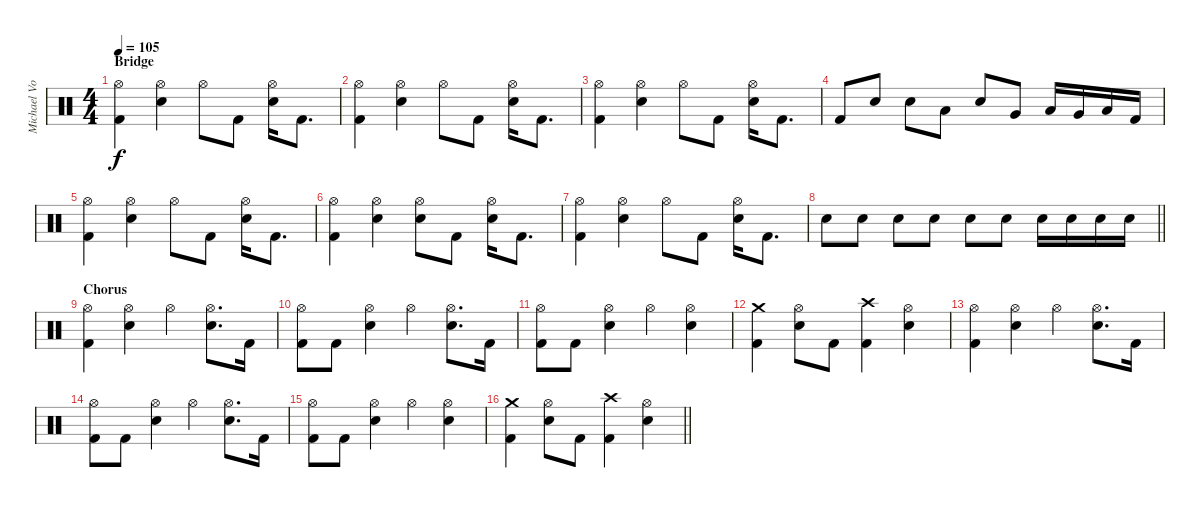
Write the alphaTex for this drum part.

\track ("Michael Von Knorring" "Michael Vo") {instrument percussion}
\staff {score}
\articulation defaults
\ts (4 4)
\section ("" "Bridge")
\tempo 105
\clef neutral
\ks c
("Hi-Hat (open)" "Kick (hit) 2").4{dy f} ("Hi-Hat (open)" "Snare (hit) 2").4 "Hi-Hat (open)".8 "Kick (hit) 2".8 ("Hi-Hat (open)" "Snare (hit) 2").16 "Kick (hit) 2".8{d} |
("Hi-Hat (open)" "Kick (hit) 2").4 ("Hi-Hat (open)" "Snare (hit) 2").4 "Hi-Hat (open)".8 "Kick (hit) 2".8 ("Hi-Hat (open)" "Snare (hit) 2").16 "Kick (hit) 2".8{d} |
("Hi-Hat (open)" "Kick (hit) 2").4 ("Hi-Hat (open)" "Snare (hit) 2").4 "Hi-Hat (open)".8 "Kick (hit) 2".8 ("Hi-Hat (open)" "Snare (hit) 2").16 "Kick (hit) 2".8{d} |
"Kick (hit) 2".8 "Snare (hit) 2".8 "Snare (hit) 2".8 "Low Tom (hit)".8 "Snare (hit) 2".8 "Very Low Tom (hit)".8 "Low Tom (hit)".16 "Very Low Tom (hit)".16 "Low Floor Tom (hit)".16 "Kick (hit) 2".16 |
("Hi-Hat (open)" "Kick (hit) 2").4 ("Hi-Hat (open)" "Snare (hit) 2").4 "Hi-Hat (open)".8 "Kick (hit) 2".8 ("Hi-Hat (open)" "Snare (hit) 2").16 "Kick (hit) 2".8{d} |
("Hi-Hat (open)" "Kick (hit) 2").4 ("Hi-Hat (open)" "Snare (hit) 2").4 ("Hi-Hat (open)" "Snare (hit) 2").8 "Kick (hit) 2".8 ("Hi-Hat (open)" "Snare (hit) 2").16 "Kick (hit) 2".8{d} |
("Hi-Hat (open)" "Kick (hit) 2").4 ("Hi-Hat (open)" "Snare (hit) 2").4 "Hi-Hat (open)".8 "Kick (hit) 2".8 ("Hi-Hat (open)" "Snare (hit) 2").16 "Kick (hit) 2".8{d} |
\barLineRight lightlight "Snare (hit) 2".8 "Snare (hit) 2".8 "Snare (hit) 2".8 "Snare (hit) 2".8 "Snare (hit) 2".8 "Snare (hit) 2".8 "Snare (hit) 2".16 "Snare (hit) 2".16 "Snare (hit) 2".16 "Snare (hit) 2".16
|
\section ("" "Chorus")
("Hi-Hat (open)" "Kick (hit) 2").4 ("Hi-Hat (open)" "Snare (hit) 2").4 "Hi-Hat (open)".4 ("Hi-Hat (open)" "Snare (hit) 2").8{d} "Kick (hit) 2".16 |
("Hi-Hat (open)" "Kick (hit) 2").8 "Kick (hit) 2".8 ("Hi-Hat (open)" "Snare (hit) 2").4 "Hi-Hat (open)".4 ("Hi-Hat (open)" "Snare (hit) 2").8{d} "Kick (hit) 2".16 |
("Hi-Hat (open)" "Kick (hit) 2").8 "Kick (hit) 2".8 ("Hi-Hat (open)" "Snare (hit) 2").4 "Hi-Hat (open)".4 ("Hi-Hat (open)" "Snare (hit) 2").4 |
("Crash medium (hit)" "Kick (hit) 2").4 ("Hi-Hat (open)" "Snare (hit) 2").8 "Kick (hit) 2".8 ("Crash high (hit)" "Kick (hit) 2").4 ("Hi-Hat (open)" "Snare (hit) 2").4 |
("Hi-Hat (open)" "Kick (hit) 2").4 ("Hi-Hat (open)" "Snare (hit) 2").4 "Hi-Hat (open)".4 ("Hi-Hat (open)" "Snare (hit) 2").8{d} "Kick (hit) 2".16 |
("Hi-Hat (open)" "Kick (hit) 2").8 "Kick (hit) 2".8 ("Hi-Hat (open)" "Snare (hit) 2").4 "Hi-Hat (open)".4 ("Hi-Hat (open)" "Snare (hit) 2").8{d} "Kick (hit) 2".16 |
("Hi-Hat (open)" "Kick (hit) 2").8 "Kick (hit) 2".8 ("Hi-Hat (open)" "Snare (hit) 2").4 "Hi-Hat (open)".4 ("Hi-Hat (open)" "Snare (hit) 2").4 |
\barLineRight lightlight
("Crash medium (hit)" "Kick (hit) 2").4 ("Hi-Hat (open)" "Snare (hit) 2").8 "Kick (hit) 2".8 ("Crash high (hit)" "Kick (hit) 2").4 ("Hi-Hat (open)" "Snare (hit) 2").4
